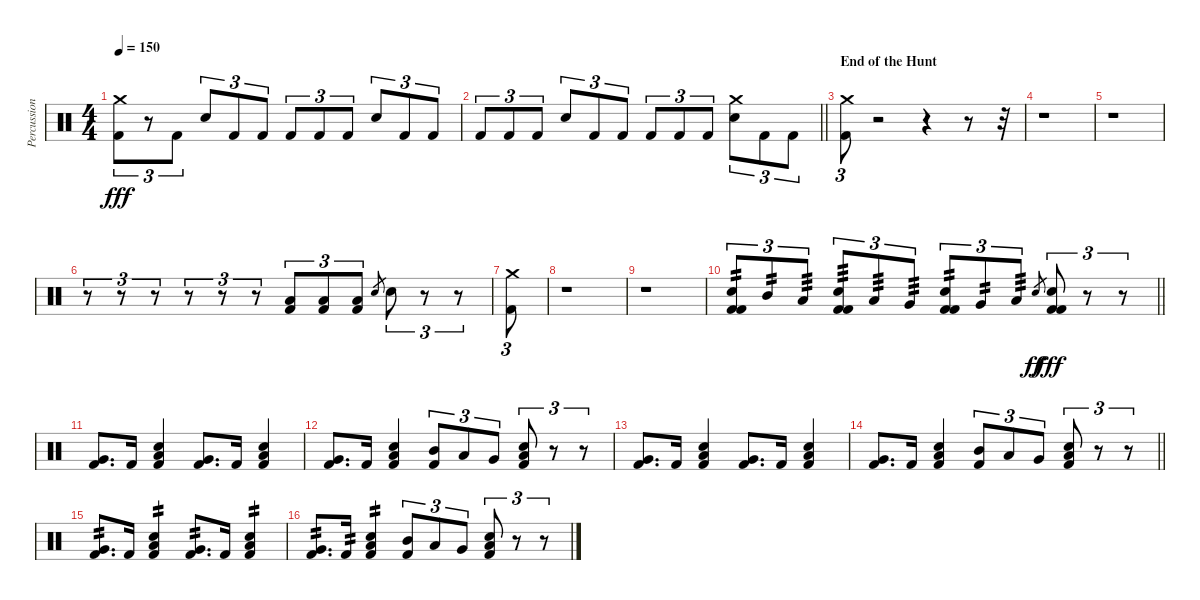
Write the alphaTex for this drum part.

\track ("Percussion" "Percussion") {instrument percussion}
\staff {score}
\articulation defaults
\ts (4 4)
\tempo 150
\clef neutral
\ks c
("Crash medium (hit)" "Kick (hit) 2").8{tu (3 2) dy fff} r.8{tu (3 2)} "Kick (hit) 2".8{tu (3 2)} "Snare (hit) 2".8{tu (3 2)} "Kick (hit) 2".8{tu (3 2)} "Kick (hit) 2".8{tu (3 2)} "Kick (hit) 2".8{tu (3 2)} "Kick (hit) 2".8{tu (3 2)} "Kick (hit) 2".8{tu (3 2)} "Snare (hit) 2".8{tu (3 2)} "Kick (hit) 2".8{tu (3 2)} "Kick (hit) 2".8{tu (3 2)} |
\barLineRight lightlight "Kick (hit) 2".8{tu (3 2)} "Kick (hit) 2".8{tu (3 2)} "Kick (hit) 2".8{tu (3 2)} "Snare (hit) 2".8{tu (3 2)} "Kick (hit) 2".8{tu (3 2)} "Kick (hit) 2".8{tu (3 2)} "Kick (hit) 2".8{tu (3 2)} "Kick (hit) 2".8{tu (3 2)} "Kick (hit) 2".8{tu (3 2)}
("Crash medium (hit)" "Snare (hit) 2").8{tu (3 2)} "Kick (hit) 2".8{tu (3 2)} "Kick (hit) 2".8{tu (3 2)} |
\section ("" "End of the Hunt")
("Crash medium (hit)" "Kick (hit) 2").8{tu (3 2)} r.2 r.4 r.8 r.32 |
r.1 |
r.1 |
r.8{tu (3 2)} r.8{tu (3 2)} r.8{tu (3 2)} r.8{tu (3 2)} r.8{tu (3 2)} r.8{tu (3 2)} ("Low Floor Tom (hit)" "Kick (hit) 2").8{tu (3 2)} ("Low Floor Tom (hit)" "Kick (hit) 2").8{tu (3 2)} ("Low Floor Tom (hit)" "Kick (hit) 2").8{tu (3 2)} "Electric Snare (hit)".8{gr} "Snare (hit) 2".8{tu (3 2)} r.8{tu (3 2)} r.8{tu (3 2)} |
("Crash medium (hit)" "Kick (hit) 2").8{tu (3 2)} |
r.1 |
r.1 |
\barLineRight lightlight
("Snare (hit) 2" "Kick (hit) 2" "Kick (hit) 2").8{tu (3 2) tp 2} "Mid Tom (hit)".8{tu (3 2) tp 2} "Low Tom (hit)".8{tu (3 2) tp 3} ("Snare (hit) 2" "Kick (hit) 2" "Kick (hit) 2").8{tu (3 2) tp 3} "Low Tom (hit)".8{tu (3 2) tp 3} "Very Low Tom (hit)".8{tu (3 2) tp 3} ("Snare (hit) 2" "Kick (hit) 2" "Kick (hit) 2").8{tu (3 2) tp 2} "Very Low Tom (hit)".8{tu (3 2) tp 2} "Low Floor Tom (hit)".8{tu (3 2) tp 3} "Electric Snare (hit)".8{gr dy ff} ("Snare (hit) 2" "Kick (hit) 2" "Kick (hit) 2").8{tu (3 2) dy fff} r.8{tu (3 2)} r.8{tu (3 2)} |
("Very Low Tom (hit)" "Kick (hit) 2").8{d} "Kick (hit) 2".16 ("Low Tom (hit)" "Snare (hit) 2" "Kick (hit) 2").4 ("Very Low Tom (hit)" "Kick (hit) 2").8{d} "Kick (hit) 2".16 ("Low Tom (hit)" "Snare (hit) 2" "Kick (hit) 2").4 |
("Very Low Tom (hit)" "Kick (hit) 2").8{d} "Kick (hit) 2".16 ("Low Tom (hit)" "Snare (hit) 2" "Kick (hit) 2").4 ("Mid Tom (hit)" "Kick (hit) 2").8{tu (3 2)} "Low Tom (hit)".8{tu (3 2)} "Very Low Tom (hit)".8{tu (3 2)} ("Snare (hit) 2" "Low Floor Tom (hit)" "Kick (hit) 2").8{tu (3 2)} r.8{tu (3 2)} r.8{tu (3 2)} |
("Very Low Tom (hit)" "Kick (hit) 2").8{d} "Kick (hit) 2".16 ("Low Tom (hit)" "Snare (hit) 2" "Kick (hit) 2").4 ("Very Low Tom (hit)" "Kick (hit) 2").8{d} "Kick (hit) 2".16 ("Low Tom (hit)" "Snare (hit) 2" "Kick (hit) 2").4 |
\barLineRight lightlight
("Very Low Tom (hit)" "Kick (hit) 2").8{d} "Kick (hit) 2".16 ("Low Tom (hit)" "Snare (hit) 2" "Kick (hit) 2").4 ("Mid Tom (hit)" "Kick (hit) 2").8{tu (3 2)} "Low Tom (hit)".8{tu (3 2)} "Very Low Tom (hit)".8{tu (3 2)} ("Snare (hit) 2" "Low Floor Tom (hit)" "Kick (hit) 2").8{tu (3 2)} r.8{tu (3 2)} r.8{tu (3 2)} |
("Very Low Tom (hit)" "Kick (hit) 2").8{d tp 2} "Kick (hit) 2".16 ("Low Tom (hit)" "Snare (hit) 2" "Kick (hit) 2").4{tp 2} ("Very Low Tom (hit)" "Kick (hit) 2").8{d tp 2} "Kick (hit) 2".16 ("Low Tom (hit)" "Snare (hit) 2" "Kick (hit) 2").4{tp 2} |
("Very Low Tom (hit)" "Kick (hit) 2").8{d tp 2} "Kick (hit) 2".16{tp 2} ("Low Tom (hit)" "Snare (hit) 2" "Kick (hit) 2").4{tp 2} ("Mid Tom (hit)" "Kick (hit) 2").8{tu (3 2)} "Low Tom (hit)".8{tu (3 2)} "Very Low Tom (hit)".8{tu (3 2)} ("Snare (hit) 2" "Low Floor Tom (hit)" "Kick (hit) 2").8{tu (3 2)} r.8{tu (3 2)} r.8{tu (3 2)}
